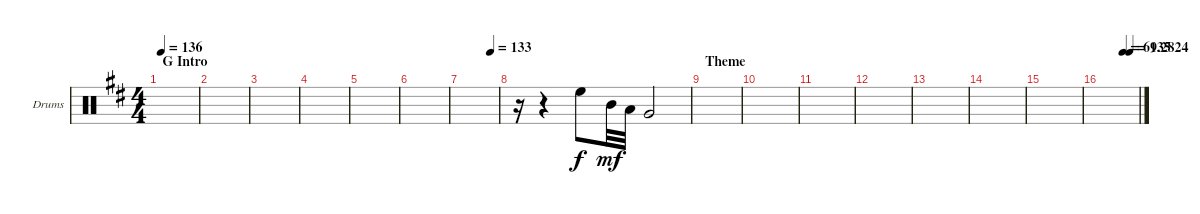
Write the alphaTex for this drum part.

\bracketExtendMode groupsimilarinstruments
\firstSystemTrackNameOrientation horizontal
\otherSystemsTrackNameOrientation horizontal
\track ("Tom" "Drums") {instrument percussion}
\staff {score}
\articulation defaults
\ts (4 4)
\section ("" "G Intro")
\tempo 136
\clef neutral
\ks d
|
|
|
|
|
|
\tempo (133 0.79375)
|
r.16 r.4 "High Floor Tom (hit)".8 "Mid Tom (hit)".32{dy mf} "Low Tom (hit)".32 "Very Low Tom (hit)".2 |
\section ("" "Theme")
|
|
|
|
|
|
|
\tempo (69.2824 0.5875)
\tempo (135 0.76875)
